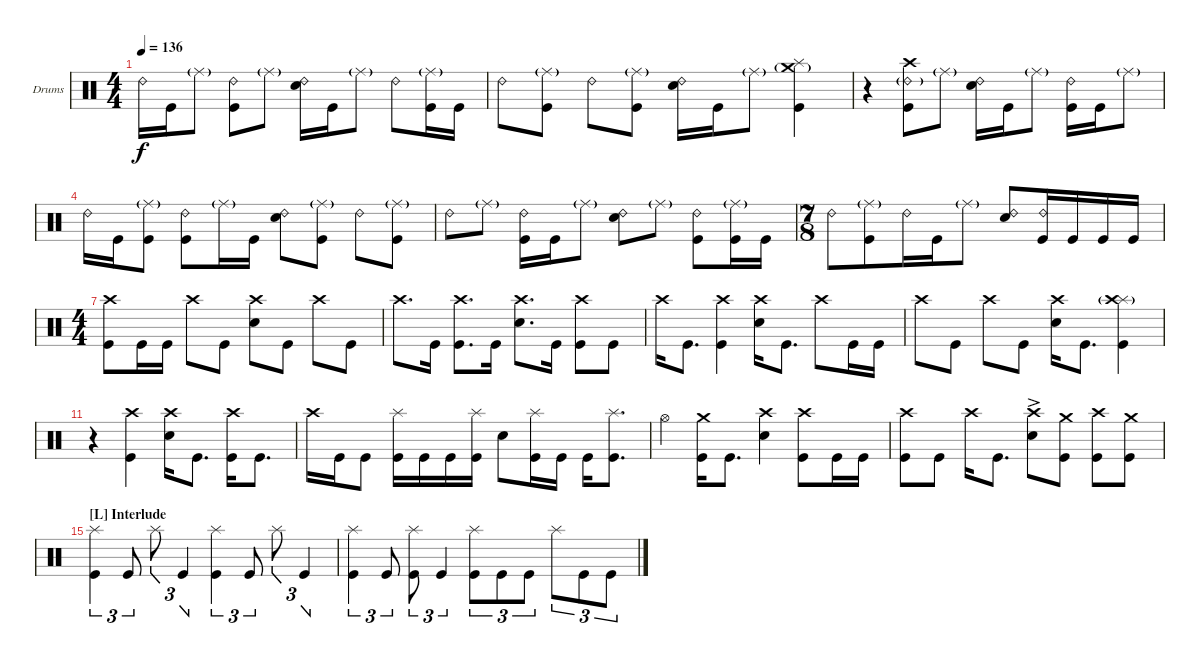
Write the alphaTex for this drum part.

\defaultSystemsLayout 4
\bracketExtendMode groupsimilarinstruments
\firstSystemTrackNameOrientation horizontal
\otherSystemsTrackNameOrientation horizontal
\defaultBarNumberDisplay FirstOfSystem
\track ("Drumkit" "Drums") {multiBarRest instrument percussion}
\staff {score}
\articulation defaults
\ts (4 4)
\tempo 136
\clef neutral
\ks c "Ride (bell) 2".16{dy f} "Kick (hit)".16 "Ride (middle)"{g}.8
("Ride (bell) 2" "Kick (hit)").8 "Ride (middle)"{g}.8 ("Ride (bell) 2" "Snare (hit) 2").16 "Kick (hit)".16 "Ride (middle)"{g}.8 "Ride (bell) 2".8 ("Kick (hit)" "Ride (middle)"{g}).16 "Kick (hit)".16 |
"Ride (bell) 2".8 ("Kick (hit)" "Ride (middle)"{g}).8 "Ride (bell) 2".8 ("Kick (hit)" "Ride (middle)"{g}).8 ("Ride (bell) 2" "Snare (hit) 2").16 "Kick (hit)".16 "Ride (middle)"{g}.8 ("Kick (hit)" "Splash (hit)" "Crash medium (hit)"{g}).4 |
r.4 ("Crash high (hit)" "Ride (bell) 2"{g} "Kick (hit)").8 "Ride (middle)"{g}.8 ("Ride (bell) 2" "Snare (hit) 2").16 "Kick (hit)".16 "Ride (middle)"{g}.8 ("Ride (bell) 2" "Kick (hit)").16 "Kick (hit)".16 "Ride (middle)"{g}.8 |
"Ride (bell) 2".16 "Kick (hit)".16 ("Kick (hit)" "Ride (middle)"{g}).8 ("Ride (bell) 2" "Kick (hit)").8 "Ride (middle)"{g}.16 "Kick (hit)".16 ("Ride (bell) 2" "Snare (hit) 2").8 ("Kick (hit)" "Ride (middle)"{g}).8 "Ride (bell) 2".8 ("Kick (hit)" "Ride (middle)"{g}).8 |
"Ride (bell) 2".8 "Ride (middle)"{g}.8 ("Ride (bell) 2" "Kick (hit)").16 "Kick (hit)".16 "Ride (middle)"{g}.8 ("Ride (bell) 2" "Snare (hit) 2").8 "Ride (middle)"{g}.8 ("Ride (bell) 2" "Kick (hit)").8 ("Kick (hit)" "Ride (middle)"{g}).16 "Kick (hit)".16 |
\ts (7 8)
"Ride (bell) 2".8 ("Ride (middle)"{g} "Kick (hit)").8 "Ride (bell) 2".16 "Kick (hit)".16 "Ride (middle)"{g}.8 ("Ride (bell) 2" "Snare (hit) 2").8 ("Kick (hit)" "Ride (bell) 2").16 "Kick (hit)".16 "Kick (hit)".16 "Kick (hit)".16 |
\ts (4 4)
("Kick (hit)" "Crash high (hit)").8 "Kick (hit)".16 "Kick (hit)".16 "Crash high (hit)".8 "Kick (hit)".8 ("Snare (hit) 2" "Crash high (hit)").8 "Kick (hit)".8 "Crash high (hit)".8 "Kick (hit)".8 |
"Crash high (hit)".8{d} "Kick (hit)".16 ("Kick (hit)" "Crash high (hit)").8{d} "Kick (hit)".16 ("Snare (hit) 2" "Crash high (hit)").8{d} "Kick (hit)".16 ("Kick (hit)" "Crash high (hit)").8 "Kick (hit)".8 |
"Crash high (hit)".16 "Kick (hit)".8{d} ("Kick (hit)" "Crash high (hit)").4 ("Snare (hit) 2" "Crash high (hit)").16 "Kick (hit)".8{d} "Crash high (hit)".8 "Kick (hit)".16 "Kick (hit)".16 |
"Crash high (hit)".8 "Kick (hit)".8 "Crash high (hit)".8 "Kick (hit)".8 ("Snare (hit) 2" "Crash high (hit)").16 "Kick (hit)".8{d} ("Kick (hit)" "Splash (hit)" "Crash high (hit)"{g}).4 |
r.4 ("Crash high (hit)" "Kick (hit)").4 ("Snare (hit) 2" "Crash high (hit)").16 "Kick (hit)".8{d} ("Kick (hit)" "Crash high (hit)").16 "Kick (hit)".8{d} |
"Crash high (hit)".16 "Kick (hit)".16 "Kick (hit)".8 ("Splash (hit)" "Kick (hit)").16 "Kick (hit)".16 "Kick (hit)".16 ("Splash (hit)" "Kick (hit)").16 "Snare (hit) 2".8 ("Kick (hit)" "Splash (hit)").16 "Kick (hit)".16 "Kick (hit)".16 ("Kick (hit)" "Splash (hit)").8{d} |
"Hi-Hat (open)".4 ("Kick (hit)" "Crash medium (hit)").16 "Kick (hit)".8{d} ("Snare (hit) 2" "Crash high (hit)").4 ("Kick (hit)" "Crash high (hit)").8 "Kick (hit)".16 "Kick (hit)".16 |
("Crash high (hit)" "Kick (hit)").8 "Kick (hit)".8 "Crash high (hit)".16 "Kick (hit)".8{d} ("Crash high (hit)" "Snare (hit) 2"{ac}).8 ("Kick (hit)" "Crash medium (hit)").8 ("Kick (hit)" "Crash high (hit)").8 ("Kick (hit)" "Crash medium (hit)").8 |
\section ("L" "Interlude")
("Kick (hit)" "Splash (hit)").4{tu (3 2)} "Kick (hit)".8{tu (3 2)} "Splash (hit)".8{tu (3 2)} "Kick (hit)".4{tu (3 2)} ("Kick (hit)" "Splash (hit)").4{tu (3 2)} "Kick (hit)".8{tu (3 2)} "Splash (hit)".8{tu (3 2)} "Kick (hit)".4{tu (3 2)} |
("Kick (hit)" "Splash (hit)").4{tu (3 2)} "Kick (hit)".8{tu (3 2)} ("Splash (hit)" "Kick (hit)").8{tu (3 2)} "Kick (hit)".4{tu (3 2)} ("Kick (hit)" "Splash (hit)").8{tu (3 2)} "Kick (hit)".8{tu (3 2)} "Kick (hit)".8{tu (3 2)} "Splash (hit)".8{tu (3 2)} "Kick (hit)".8{tu (3 2)} "Kick (hit)".8{tu (3 2)}
